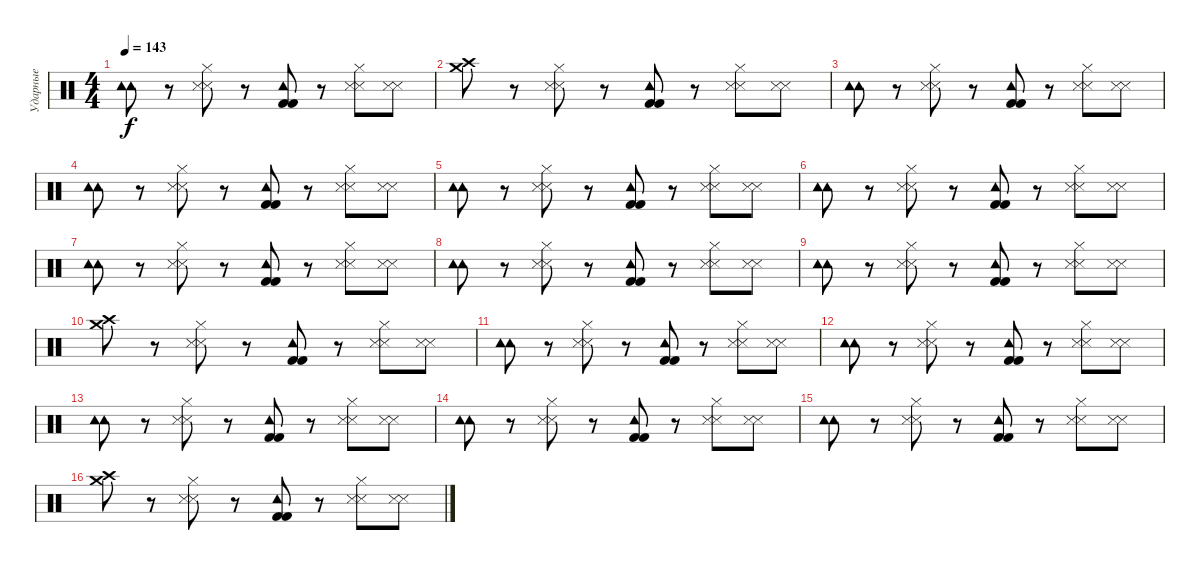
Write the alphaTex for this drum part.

\track ("Ударные" "Ударные") {instrument percussion}
\staff {score}
\articulation defaults
\ts (4 4)
\tempo 143
\clef neutral
\ks c
("Tambourine (hit)" "Tambourine (hit)").8{dy f} r.8 ("Hi-Hat (closed)" "Metronome (hit)" "Metronome (hit)").8 r.8 ("Tambourine (hit)" "Kick (hit) 2" "Kick (hit) 2").8 r.8 ("Hi-Hat (closed)" "Metronome (hit)" "Metronome (hit)").8 ("Metronome (hit)" "Metronome (hit)").8 |
("Crash medium (hit)" "Crash high (hit)").8 r.8 ("Hi-Hat (closed)" "Metronome (hit)" "Metronome (hit)").8 r.8 ("Tambourine (hit)" "Kick (hit) 2" "Kick (hit) 2").8 r.8 ("Hi-Hat (closed)" "Metronome (hit)" "Metronome (hit)").8 ("Metronome (hit)" "Metronome (hit)").8 |
("Tambourine (hit)" "Tambourine (hit)").8 r.8 ("Hi-Hat (closed)" "Metronome (hit)" "Metronome (hit)").8 r.8 ("Tambourine (hit)" "Kick (hit) 2" "Kick (hit) 2").8 r.8 ("Hi-Hat (closed)" "Metronome (hit)" "Metronome (hit)").8 ("Metronome (hit)" "Metronome (hit)").8 |
("Tambourine (hit)" "Tambourine (hit)").8 r.8 ("Hi-Hat (closed)" "Metronome (hit)" "Metronome (hit)").8 r.8 ("Tambourine (hit)" "Kick (hit) 2" "Kick (hit) 2").8 r.8 ("Hi-Hat (closed)" "Metronome (hit)" "Metronome (hit)").8 ("Metronome (hit)" "Metronome (hit)").8 |
("Tambourine (hit)" "Tambourine (hit)").8 r.8 ("Hi-Hat (closed)" "Metronome (hit)" "Metronome (hit)").8 r.8 ("Tambourine (hit)" "Kick (hit) 2" "Kick (hit) 2").8 r.8 ("Hi-Hat (closed)" "Metronome (hit)" "Metronome (hit)").8 ("Metronome (hit)" "Metronome (hit)").8 |
("Tambourine (hit)" "Tambourine (hit)").8 r.8 ("Hi-Hat (closed)" "Metronome (hit)" "Metronome (hit)").8 r.8 ("Tambourine (hit)" "Kick (hit) 2" "Kick (hit) 2").8 r.8 ("Hi-Hat (closed)" "Metronome (hit)" "Metronome (hit)").8 ("Metronome (hit)" "Metronome (hit)").8 |
("Tambourine (hit)" "Tambourine (hit)").8 r.8 ("Hi-Hat (closed)" "Metronome (hit)" "Metronome (hit)").8 r.8 ("Tambourine (hit)" "Kick (hit) 2" "Kick (hit) 2").8 r.8 ("Hi-Hat (closed)" "Metronome (hit)" "Metronome (hit)").8 ("Metronome (hit)" "Metronome (hit)").8 |
("Tambourine (hit)" "Tambourine (hit)").8 r.8 ("Hi-Hat (closed)" "Metronome (hit)" "Metronome (hit)").8 r.8 ("Tambourine (hit)" "Kick (hit) 2" "Kick (hit) 2").8 r.8 ("Hi-Hat (closed)" "Metronome (hit)" "Metronome (hit)").8 ("Metronome (hit)" "Metronome (hit)").8 |
("Tambourine (hit)" "Tambourine (hit)").8 r.8 ("Hi-Hat (closed)" "Metronome (hit)" "Metronome (hit)").8 r.8 ("Tambourine (hit)" "Kick (hit) 2" "Kick (hit) 2").8 r.8 ("Hi-Hat (closed)" "Metronome (hit)" "Metronome (hit)").8 ("Metronome (hit)" "Metronome (hit)").8 |
("Crash medium (hit)" "Crash high (hit)").8 r.8 ("Hi-Hat (closed)" "Metronome (hit)" "Metronome (hit)").8 r.8 ("Tambourine (hit)" "Kick (hit) 2" "Kick (hit) 2").8 r.8 ("Hi-Hat (closed)" "Metronome (hit)" "Metronome (hit)").8 ("Metronome (hit)" "Metronome (hit)").8 |
("Tambourine (hit)" "Tambourine (hit)").8 r.8 ("Hi-Hat (closed)" "Metronome (hit)" "Metronome (hit)").8 r.8 ("Tambourine (hit)" "Kick (hit) 2" "Kick (hit) 2").8 r.8 ("Hi-Hat (closed)" "Metronome (hit)" "Metronome (hit)").8 ("Metronome (hit)" "Metronome (hit)").8 |
("Tambourine (hit)" "Tambourine (hit)").8 r.8 ("Hi-Hat (closed)" "Metronome (hit)" "Metronome (hit)").8 r.8 ("Tambourine (hit)" "Kick (hit) 2" "Kick (hit) 2").8 r.8 ("Hi-Hat (closed)" "Metronome (hit)" "Metronome (hit)").8 ("Metronome (hit)" "Metronome (hit)").8 |
("Tambourine (hit)" "Tambourine (hit)").8 r.8 ("Hi-Hat (closed)" "Metronome (hit)" "Metronome (hit)").8 r.8 ("Tambourine (hit)" "Kick (hit) 2" "Kick (hit) 2").8 r.8 ("Hi-Hat (closed)" "Metronome (hit)" "Metronome (hit)").8 ("Metronome (hit)" "Metronome (hit)").8 |
("Tambourine (hit)" "Tambourine (hit)").8 r.8 ("Hi-Hat (closed)" "Metronome (hit)" "Metronome (hit)").8 r.8 ("Tambourine (hit)" "Kick (hit) 2" "Kick (hit) 2").8 r.8 ("Hi-Hat (closed)" "Metronome (hit)" "Metronome (hit)").8 ("Metronome (hit)" "Metronome (hit)").8 |
("Tambourine (hit)" "Tambourine (hit)").8 r.8 ("Hi-Hat (closed)" "Metronome (hit)" "Metronome (hit)").8 r.8 ("Tambourine (hit)" "Kick (hit) 2" "Kick (hit) 2").8 r.8 ("Hi-Hat (closed)" "Metronome (hit)" "Metronome (hit)").8 ("Metronome (hit)" "Metronome (hit)").8 |
("Crash medium (hit)" "Crash high (hit)").8 r.8 ("Hi-Hat (closed)" "Metronome (hit)" "Metronome (hit)").8 r.8 ("Tambourine (hit)" "Kick (hit) 2" "Kick (hit) 2").8 r.8 ("Hi-Hat (closed)" "Metronome (hit)" "Metronome (hit)").8 ("Metronome (hit)" "Metronome (hit)").8
